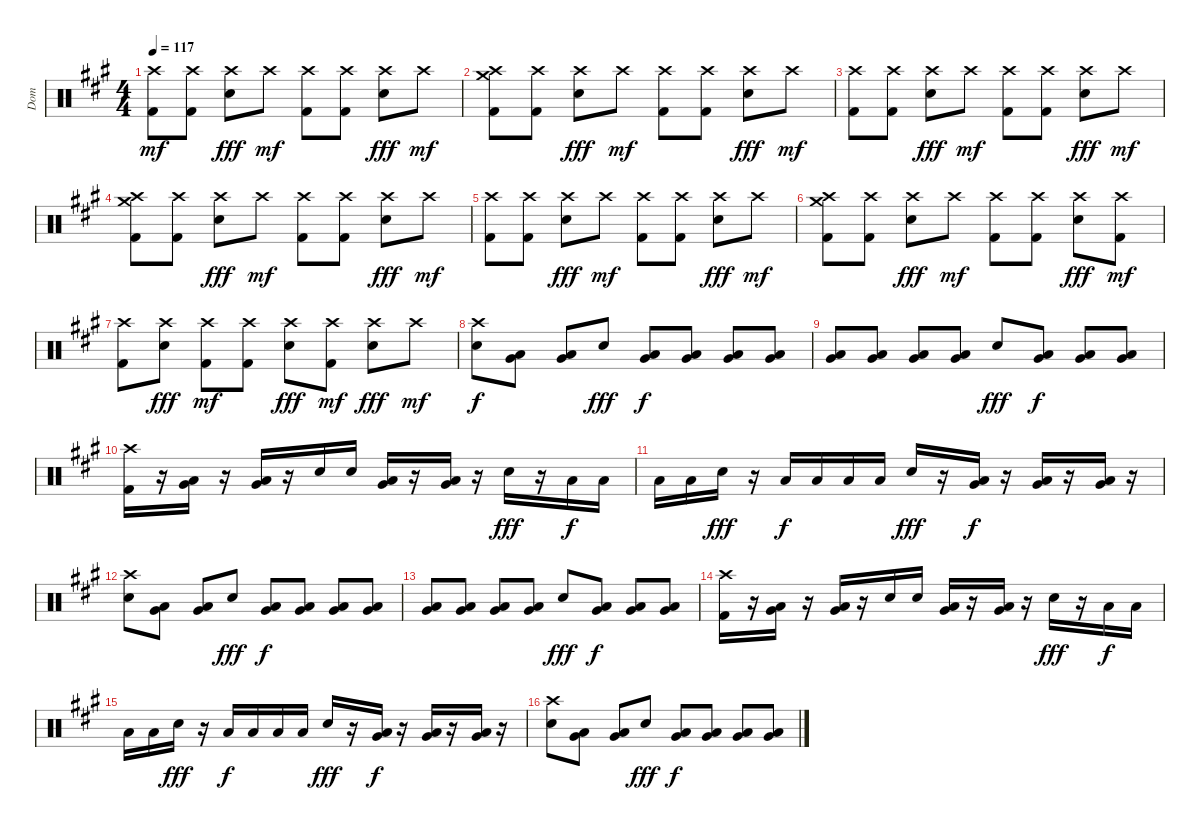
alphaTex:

\track ("Dom" "Dom") {instrument percussion}
\staff {score}
\articulation defaults
\ts (4 4)
\tempo 117
\clef neutral
\ks a
("Crash high (hit)" "Kick (hit) 2").8{dy mf} ("Crash high (hit)" "Kick (hit) 2").8 ("Crash high (hit)" "Snare (hit) 2").8{dy fff} "Crash high (hit)".8{dy mf} ("Crash high (hit)" "Kick (hit) 2").8 ("Crash high (hit)" "Kick (hit) 2").8 ("Crash high (hit)" "Snare (hit) 2").8{dy fff} "Crash high (hit)".8{dy mf} |
("Crash medium (hit)" "Crash high (hit)" "Kick (hit) 2").8 ("Crash high (hit)" "Kick (hit) 2").8 ("Crash high (hit)" "Snare (hit) 2").8{dy fff} "Crash high (hit)".8{dy mf} ("Crash high (hit)" "Kick (hit) 2").8 ("Crash high (hit)" "Kick (hit) 2").8 ("Crash high (hit)" "Snare (hit) 2").8{dy fff} "Crash high (hit)".8{dy mf} |
("Crash high (hit)" "Kick (hit) 2").8 ("Crash high (hit)" "Kick (hit) 2").8 ("Crash high (hit)" "Snare (hit) 2").8{dy fff} "Crash high (hit)".8{dy mf} ("Crash high (hit)" "Kick (hit) 2").8 ("Crash high (hit)" "Kick (hit) 2").8 ("Crash high (hit)" "Snare (hit) 2").8{dy fff} "Crash high (hit)".8{dy mf} |
("Crash medium (hit)" "Crash high (hit)" "Kick (hit) 2").8 ("Crash high (hit)" "Kick (hit) 2").8 ("Crash high (hit)" "Snare (hit) 2").8{dy fff} "Crash high (hit)".8{dy mf} ("Crash high (hit)" "Kick (hit) 2").8 ("Crash high (hit)" "Kick (hit) 2").8 ("Crash high (hit)" "Snare (hit) 2").8{dy fff} "Crash high (hit)".8{dy mf} |
("Crash high (hit)" "Kick (hit) 2").8 ("Crash high (hit)" "Kick (hit) 2").8 ("Crash high (hit)" "Snare (hit) 2").8{dy fff} "Crash high (hit)".8{dy mf} ("Crash high (hit)" "Kick (hit) 2").8 ("Crash high (hit)" "Kick (hit) 2").8 ("Crash high (hit)" "Snare (hit) 2").8{dy fff} "Crash high (hit)".8{dy mf} |
("Crash medium (hit)" "Crash high (hit)" "Kick (hit) 2").8 ("Crash high (hit)" "Kick (hit) 2").8 ("Crash high (hit)" "Snare (hit) 2").8{dy fff} "Crash high (hit)".8{dy mf} ("Crash high (hit)" "Kick (hit) 2").8 ("Crash high (hit)" "Kick (hit) 2").8 ("Crash high (hit)" "Snare (hit) 2").8{dy fff} ("Crash high (hit)" "Kick (hit) 2").8{dy mf} |
("Crash high (hit)" "Kick (hit) 2").8 ("Crash high (hit)" "Snare (hit) 2").8{dy fff} ("Crash high (hit)" "Kick (hit) 2").8{dy mf} ("Crash high (hit)" "Kick (hit) 2").8 ("Crash high (hit)" "Snare (hit) 2").8{dy fff} ("Crash high (hit)" "Kick (hit) 2").8{dy mf} ("Crash high (hit)" "Snare (hit) 2").8{dy fff} "Crash high (hit)".8{dy mf} |
("Crash high (hit)" "Snare (hit) 2").8{dy f} ("Very Low Tom (hit)" "Low Floor Tom (hit)").8 ("Very Low Tom (hit)" "Low Floor Tom (hit)").8 "Snare (hit) 2".8{dy fff} ("Very Low Tom (hit)" "Low Floor Tom (hit)").8{dy f} ("Very Low Tom (hit)" "Low Floor Tom (hit)").8 ("Very Low Tom (hit)" "Low Floor Tom (hit)").8 ("Very Low Tom (hit)" "Low Floor Tom (hit)").8 |
("Very Low Tom (hit)" "Low Floor Tom (hit)").8 ("Very Low Tom (hit)" "Low Floor Tom (hit)").8 ("Very Low Tom (hit)" "Low Floor Tom (hit)").8 ("Very Low Tom (hit)" "Low Floor Tom (hit)").8 "Snare (hit) 2".8{dy fff} ("Very Low Tom (hit)" "Low Floor Tom (hit)").8{dy f} ("Very Low Tom (hit)" "Low Floor Tom (hit)").8 ("Very Low Tom (hit)" "Low Floor Tom (hit)").8 |
("Crash high (hit)" "Kick (hit) 2").16 r.16 ("Very Low Tom (hit)" "Low Floor Tom (hit)").16 r.16 ("Very Low Tom (hit)" "Low Floor Tom (hit)").16 r.16 "Snare (hit) 2".16 "Snare (hit) 2".16 ("Very Low Tom (hit)" "Low Floor Tom (hit)").16 r.16 ("Very Low Tom (hit)" "Low Floor Tom (hit)").16 r.16 "Snare (hit) 2".16{dy fff} r.16 "Low Floor Tom (hit)".16{dy f} "Low Floor Tom (hit)".16 |
"Low Floor Tom (hit)".16 "Low Floor Tom (hit)".16 "Snare (hit) 2".16{dy fff} r.16 "Low Floor Tom (hit)".16{dy f} "Low Floor Tom (hit)".16 "Low Floor Tom (hit)".16 "Low Floor Tom (hit)".16 "Snare (hit) 2".16{dy fff} r.16 ("Very Low Tom (hit)" "Low Floor Tom (hit)").16{dy f} r.16 ("Very Low Tom (hit)" "Low Floor Tom (hit)").16 r.16 ("Very Low Tom (hit)" "Low Floor Tom (hit)").16 r.16 |
("Crash high (hit)" "Snare (hit) 2").8 ("Very Low Tom (hit)" "Low Floor Tom (hit)").8 ("Very Low Tom (hit)" "Low Floor Tom (hit)").8 "Snare (hit) 2".8{dy fff} ("Very Low Tom (hit)" "Low Floor Tom (hit)").8{dy f} ("Very Low Tom (hit)" "Low Floor Tom (hit)").8 ("Very Low Tom (hit)" "Low Floor Tom (hit)").8 ("Very Low Tom (hit)" "Low Floor Tom (hit)").8 |
("Very Low Tom (hit)" "Low Floor Tom (hit)").8 ("Very Low Tom (hit)" "Low Floor Tom (hit)").8 ("Very Low Tom (hit)" "Low Floor Tom (hit)").8 ("Very Low Tom (hit)" "Low Floor Tom (hit)").8 "Snare (hit) 2".8{dy fff} ("Very Low Tom (hit)" "Low Floor Tom (hit)").8{dy f} ("Very Low Tom (hit)" "Low Floor Tom (hit)").8 ("Very Low Tom (hit)" "Low Floor Tom (hit)").8 |
("Crash high (hit)" "Kick (hit) 2").16 r.16 ("Very Low Tom (hit)" "Low Floor Tom (hit)").16 r.16 ("Very Low Tom (hit)" "Low Floor Tom (hit)").16 r.16 "Snare (hit) 2".16 "Snare (hit) 2".16 ("Very Low Tom (hit)" "Low Floor Tom (hit)").16 r.16 ("Very Low Tom (hit)" "Low Floor Tom (hit)").16 r.16 "Snare (hit) 2".16{dy fff} r.16 "Low Floor Tom (hit)".16{dy f} "Low Floor Tom (hit)".16 |
"Low Floor Tom (hit)".16 "Low Floor Tom (hit)".16 "Snare (hit) 2".16{dy fff} r.16 "Low Floor Tom (hit)".16{dy f} "Low Floor Tom (hit)".16 "Low Floor Tom (hit)".16 "Low Floor Tom (hit)".16 "Snare (hit) 2".16{dy fff} r.16 ("Very Low Tom (hit)" "Low Floor Tom (hit)").16{dy f} r.16 ("Very Low Tom (hit)" "Low Floor Tom (hit)").16 r.16 ("Very Low Tom (hit)" "Low Floor Tom (hit)").16 r.16 |
("Crash high (hit)" "Snare (hit) 2").8 ("Very Low Tom (hit)" "Low Floor Tom (hit)").8 ("Very Low Tom (hit)" "Low Floor Tom (hit)").8 "Snare (hit) 2".8{dy fff} ("Very Low Tom (hit)" "Low Floor Tom (hit)").8{dy f} ("Very Low Tom (hit)" "Low Floor Tom (hit)").8 ("Very Low Tom (hit)" "Low Floor Tom (hit)").8 ("Very Low Tom (hit)" "Low Floor Tom (hit)").8
